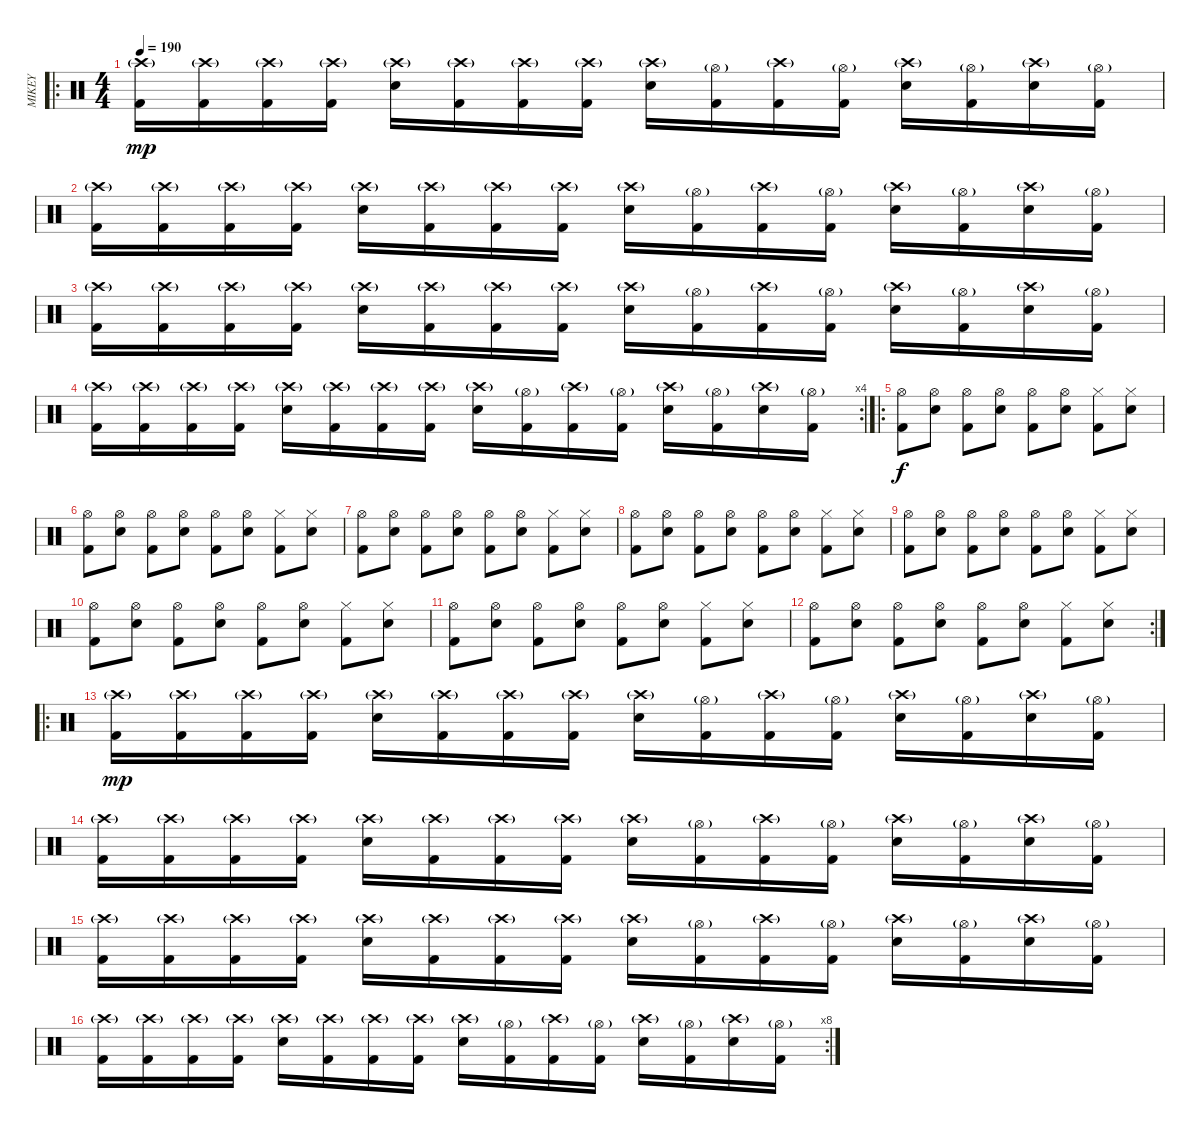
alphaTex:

\track ("MIKEY" "MIKEY") {instrument percussion}
\staff {score}
\articulation defaults
\ro
\ts (4 4)
\tempo 190
\clef neutral
\ks c
("Kick (hit) 2" "Crash high (hit)"{g}).16{dy mp} ("Kick (hit) 2" "Crash high (hit)"{g}).16 ("Kick (hit) 2" "Crash high (hit)"{g}).16 ("Kick (hit) 2" "Crash high (hit)"{g}).16 ("Snare (hit) 2" "Crash high (hit)"{g}).16 ("Kick (hit) 2" "Crash high (hit)"{g}).16 ("Kick (hit) 2" "Crash high (hit)"{g}).16 ("Kick (hit) 2" "Crash high (hit)"{g}).16 ("Snare (hit) 2" "Crash high (hit)"{g}).16 ("Kick (hit) 2" "Hi-Hat (open)"{g}).16 ("Kick (hit) 2" "Crash high (hit)"{g}).16 ("Kick (hit) 2" "Hi-Hat (open)"{g}).16 ("Snare (hit) 2" "Crash high (hit)"{g}).16 ("Kick (hit) 2" "Hi-Hat (open)"{g}).16 ("Snare (hit) 2" "Crash high (hit)"{g}).16 ("Kick (hit) 2" "Hi-Hat (open)"{g}).16 |
("Kick (hit) 2" "Crash high (hit)"{g}).16 ("Kick (hit) 2" "Crash high (hit)"{g}).16 ("Kick (hit) 2" "Crash high (hit)"{g}).16 ("Kick (hit) 2" "Crash high (hit)"{g}).16 ("Snare (hit) 2" "Crash high (hit)"{g}).16 ("Kick (hit) 2" "Crash high (hit)"{g}).16 ("Kick (hit) 2" "Crash high (hit)"{g}).16 ("Kick (hit) 2" "Crash high (hit)"{g}).16 ("Snare (hit) 2" "Crash high (hit)"{g}).16 ("Kick (hit) 2" "Hi-Hat (open)"{g}).16 ("Kick (hit) 2" "Crash high (hit)"{g}).16 ("Kick (hit) 2" "Hi-Hat (open)"{g}).16 ("Snare (hit) 2" "Crash high (hit)"{g}).16 ("Kick (hit) 2" "Hi-Hat (open)"{g}).16 ("Snare (hit) 2" "Crash high (hit)"{g}).16 ("Kick (hit) 2" "Hi-Hat (open)"{g}).16 |
("Kick (hit) 2" "Crash high (hit)"{g}).16 ("Kick (hit) 2" "Crash high (hit)"{g}).16 ("Kick (hit) 2" "Crash high (hit)"{g}).16 ("Kick (hit) 2" "Crash high (hit)"{g}).16 ("Snare (hit) 2" "Crash high (hit)"{g}).16 ("Kick (hit) 2" "Crash high (hit)"{g}).16 ("Kick (hit) 2" "Crash high (hit)"{g}).16 ("Kick (hit) 2" "Crash high (hit)"{g}).16 ("Snare (hit) 2" "Crash high (hit)"{g}).16 ("Kick (hit) 2" "Hi-Hat (open)"{g}).16 ("Kick (hit) 2" "Crash high (hit)"{g}).16 ("Kick (hit) 2" "Hi-Hat (open)"{g}).16 ("Snare (hit) 2" "Crash high (hit)"{g}).16 ("Kick (hit) 2" "Hi-Hat (open)"{g}).16 ("Snare (hit) 2" "Crash high (hit)"{g}).16 ("Kick (hit) 2" "Hi-Hat (open)"{g}).16 |
\rc 4
("Kick (hit) 2" "Crash high (hit)"{g}).16 ("Kick (hit) 2" "Crash high (hit)"{g}).16 ("Kick (hit) 2" "Crash high (hit)"{g}).16 ("Kick (hit) 2" "Crash high (hit)"{g}).16 ("Snare (hit) 2" "Crash high (hit)"{g}).16 ("Kick (hit) 2" "Crash high (hit)"{g}).16 ("Kick (hit) 2" "Crash high (hit)"{g}).16 ("Kick (hit) 2" "Crash high (hit)"{g}).16 ("Snare (hit) 2" "Crash high (hit)"{g}).16 ("Kick (hit) 2" "Hi-Hat (open)"{g}).16 ("Kick (hit) 2" "Crash high (hit)"{g}).16 ("Kick (hit) 2" "Hi-Hat (open)"{g}).16 ("Snare (hit) 2" "Crash high (hit)"{g}).16 ("Kick (hit) 2" "Hi-Hat (open)"{g}).16 ("Snare (hit) 2" "Crash high (hit)"{g}).16 ("Kick (hit) 2" "Hi-Hat (open)"{g}).16 |
\ro
("Hi-Hat (open)" "Kick (hit) 2").8{dy f} ("Hi-Hat (open)" "Snare (hit) 2").8 ("Hi-Hat (open)" "Kick (hit) 2").8 ("Hi-Hat (open)" "Snare (hit) 2").8 ("Hi-Hat (open)" "Kick (hit) 2").8 ("Hi-Hat (open)" "Snare (hit) 2").8 ("Hi-Hat (closed)" "Kick (hit) 2").8 ("Hi-Hat (closed)" "Snare (hit) 2").8 |
("Hi-Hat (open)" "Kick (hit) 2").8 ("Hi-Hat (open)" "Snare (hit) 2").8 ("Hi-Hat (open)" "Kick (hit) 2").8 ("Hi-Hat (open)" "Snare (hit) 2").8 ("Hi-Hat (open)" "Kick (hit) 2").8 ("Hi-Hat (open)" "Snare (hit) 2").8 ("Hi-Hat (closed)" "Kick (hit) 2").8 ("Hi-Hat (closed)" "Snare (hit) 2").8 |
("Hi-Hat (open)" "Kick (hit) 2").8 ("Hi-Hat (open)" "Snare (hit) 2").8 ("Hi-Hat (open)" "Kick (hit) 2").8 ("Hi-Hat (open)" "Snare (hit) 2").8 ("Hi-Hat (open)" "Kick (hit) 2").8 ("Hi-Hat (open)" "Snare (hit) 2").8 ("Hi-Hat (closed)" "Kick (hit) 2").8 ("Hi-Hat (closed)" "Snare (hit) 2").8 |
("Hi-Hat (open)" "Kick (hit) 2").8 ("Hi-Hat (open)" "Snare (hit) 2").8 ("Hi-Hat (open)" "Kick (hit) 2").8 ("Hi-Hat (open)" "Snare (hit) 2").8 ("Hi-Hat (open)" "Kick (hit) 2").8 ("Hi-Hat (open)" "Snare (hit) 2").8 ("Hi-Hat (closed)" "Kick (hit) 2").8 ("Hi-Hat (closed)" "Snare (hit) 2").8 |
("Hi-Hat (open)" "Kick (hit) 2").8 ("Hi-Hat (open)" "Snare (hit) 2").8 ("Hi-Hat (open)" "Kick (hit) 2").8 ("Hi-Hat (open)" "Snare (hit) 2").8 ("Hi-Hat (open)" "Kick (hit) 2").8 ("Hi-Hat (open)" "Snare (hit) 2").8 ("Hi-Hat (closed)" "Kick (hit) 2").8 ("Hi-Hat (closed)" "Snare (hit) 2").8 |
("Hi-Hat (open)" "Kick (hit) 2").8 ("Hi-Hat (open)" "Snare (hit) 2").8 ("Hi-Hat (open)" "Kick (hit) 2").8 ("Hi-Hat (open)" "Snare (hit) 2").8 ("Hi-Hat (open)" "Kick (hit) 2").8 ("Hi-Hat (open)" "Snare (hit) 2").8 ("Hi-Hat (closed)" "Kick (hit) 2").8 ("Hi-Hat (closed)" "Snare (hit) 2").8 |
("Hi-Hat (open)" "Kick (hit) 2").8 ("Hi-Hat (open)" "Snare (hit) 2").8 ("Hi-Hat (open)" "Kick (hit) 2").8 ("Hi-Hat (open)" "Snare (hit) 2").8 ("Hi-Hat (open)" "Kick (hit) 2").8 ("Hi-Hat (open)" "Snare (hit) 2").8 ("Hi-Hat (closed)" "Kick (hit) 2").8 ("Hi-Hat (closed)" "Snare (hit) 2").8 |
\rc 2
("Hi-Hat (open)" "Kick (hit) 2").8 ("Hi-Hat (open)" "Snare (hit) 2").8 ("Hi-Hat (open)" "Kick (hit) 2").8 ("Hi-Hat (open)" "Snare (hit) 2").8 ("Hi-Hat (open)" "Kick (hit) 2").8 ("Hi-Hat (open)" "Snare (hit) 2").8 ("Hi-Hat (closed)" "Kick (hit) 2").8 ("Hi-Hat (closed)" "Snare (hit) 2").8 |
\ro
("Kick (hit) 2" "Crash high (hit)"{g}).16{dy mp} ("Kick (hit) 2" "Crash high (hit)"{g}).16 ("Kick (hit) 2" "Crash high (hit)"{g}).16 ("Kick (hit) 2" "Crash high (hit)"{g}).16 ("Snare (hit) 2" "Crash high (hit)"{g}).16 ("Kick (hit) 2" "Crash high (hit)"{g}).16 ("Kick (hit) 2" "Crash high (hit)"{g}).16 ("Kick (hit) 2" "Crash high (hit)"{g}).16 ("Snare (hit) 2" "Crash high (hit)"{g}).16 ("Kick (hit) 2" "Hi-Hat (open)"{g}).16 ("Kick (hit) 2" "Crash high (hit)"{g}).16 ("Kick (hit) 2" "Hi-Hat (open)"{g}).16 ("Snare (hit) 2" "Crash high (hit)"{g}).16 ("Kick (hit) 2" "Hi-Hat (open)"{g}).16 ("Snare (hit) 2" "Crash high (hit)"{g}).16 ("Kick (hit) 2" "Hi-Hat (open)"{g}).16 |
("Kick (hit) 2" "Crash high (hit)"{g}).16 ("Kick (hit) 2" "Crash high (hit)"{g}).16 ("Kick (hit) 2" "Crash high (hit)"{g}).16 ("Kick (hit) 2" "Crash high (hit)"{g}).16 ("Snare (hit) 2" "Crash high (hit)"{g}).16 ("Kick (hit) 2" "Crash high (hit)"{g}).16 ("Kick (hit) 2" "Crash high (hit)"{g}).16 ("Kick (hit) 2" "Crash high (hit)"{g}).16 ("Snare (hit) 2" "Crash high (hit)"{g}).16 ("Kick (hit) 2" "Hi-Hat (open)"{g}).16 ("Kick (hit) 2" "Crash high (hit)"{g}).16 ("Kick (hit) 2" "Hi-Hat (open)"{g}).16 ("Snare (hit) 2" "Crash high (hit)"{g}).16 ("Kick (hit) 2" "Hi-Hat (open)"{g}).16 ("Snare (hit) 2" "Crash high (hit)"{g}).16 ("Kick (hit) 2" "Hi-Hat (open)"{g}).16 |
("Kick (hit) 2" "Crash high (hit)"{g}).16 ("Kick (hit) 2" "Crash high (hit)"{g}).16 ("Kick (hit) 2" "Crash high (hit)"{g}).16 ("Kick (hit) 2" "Crash high (hit)"{g}).16 ("Snare (hit) 2" "Crash high (hit)"{g}).16 ("Kick (hit) 2" "Crash high (hit)"{g}).16 ("Kick (hit) 2" "Crash high (hit)"{g}).16 ("Kick (hit) 2" "Crash high (hit)"{g}).16 ("Snare (hit) 2" "Crash high (hit)"{g}).16 ("Kick (hit) 2" "Hi-Hat (open)"{g}).16 ("Kick (hit) 2" "Crash high (hit)"{g}).16 ("Kick (hit) 2" "Hi-Hat (open)"{g}).16 ("Snare (hit) 2" "Crash high (hit)"{g}).16 ("Kick (hit) 2" "Hi-Hat (open)"{g}).16 ("Snare (hit) 2" "Crash high (hit)"{g}).16 ("Kick (hit) 2" "Hi-Hat (open)"{g}).16 |
\rc 8
("Kick (hit) 2" "Crash high (hit)"{g}).16 ("Kick (hit) 2" "Crash high (hit)"{g}).16 ("Kick (hit) 2" "Crash high (hit)"{g}).16 ("Kick (hit) 2" "Crash high (hit)"{g}).16 ("Snare (hit) 2" "Crash high (hit)"{g}).16 ("Kick (hit) 2" "Crash high (hit)"{g}).16 ("Kick (hit) 2" "Crash high (hit)"{g}).16 ("Kick (hit) 2" "Crash high (hit)"{g}).16 ("Snare (hit) 2" "Crash high (hit)"{g}).16 ("Kick (hit) 2" "Hi-Hat (open)"{g}).16 ("Kick (hit) 2" "Crash high (hit)"{g}).16 ("Kick (hit) 2" "Hi-Hat (open)"{g}).16 ("Snare (hit) 2" "Crash high (hit)"{g}).16 ("Kick (hit) 2" "Hi-Hat (open)"{g}).16 ("Snare (hit) 2" "Crash high (hit)"{g}).16 ("Kick (hit) 2" "Hi-Hat (open)"{g}).16
